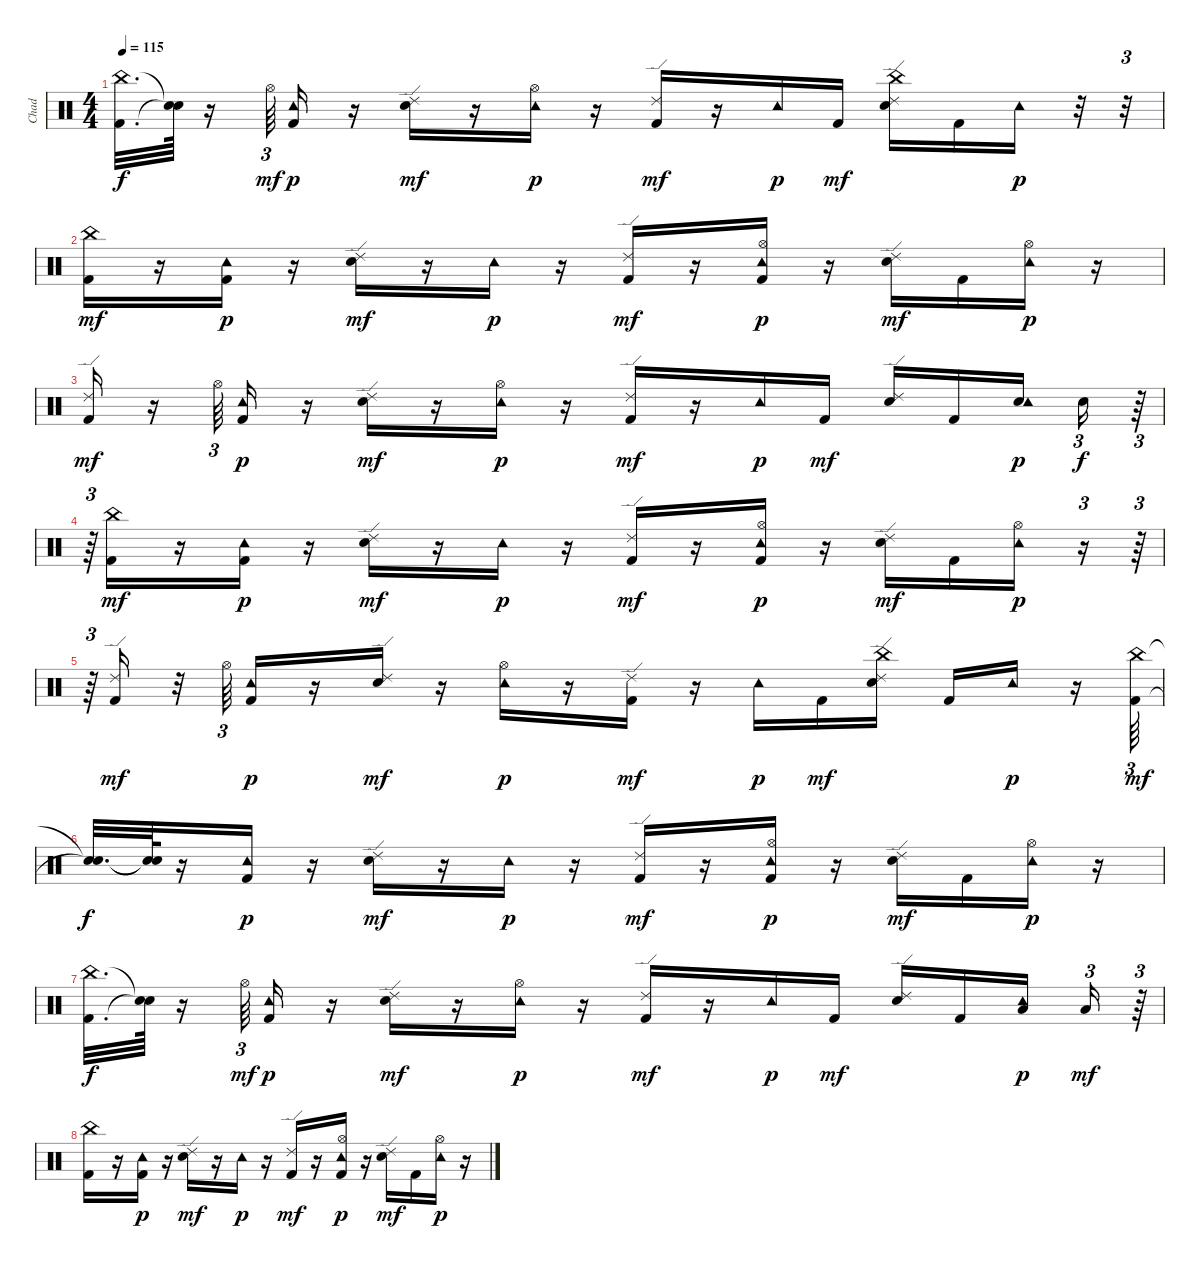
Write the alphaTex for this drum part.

\track ("Chad" "Chad") {instrument percussion}
\staff {score}
\articulation defaults
\ts (4 4)
\tempo 115
\clef neutral
\ks c
("Kick (hit) 2" "China (hit)").32{d dy f} ("Snare (hit)"{t} "Snare (hit)"{t}).64 r.16 "Hi-Hat (open)".64{tu (3 2) dy mf} ("Kick (hit) 2" "Tambourine (hit)").16{dy p} r.16 ("Snare (hit) 2" "Ride (edge) 2").16{dy mf} r.16 ("Hi-Hat (open)" "Tambourine (hit)").16{dy p} r.16 ("Kick (hit) 2" "Ride (edge) 2").16{dy mf} r.16 "Tambourine (hit)".16{dy p} "Kick (hit) 2".16{dy mf} ("Snare (hit) 2" "China (hit)" "Ride (edge) 2").16 "Kick (hit) 2".16 "Tambourine (hit)".16{dy p} r.32 r.32{tu (3 2)} |
("Kick (hit) 2" "China (hit)").16{dy mf} r.16 ("Kick (hit) 2" "Tambourine (hit)").16{dy p} r.16 ("Snare (hit) 2" "Ride (edge) 2").16{dy mf} r.16 "Tambourine (hit)".16{dy p} r.16 ("Kick (hit) 2" "Ride (edge) 2").16{dy mf} r.16 ("Kick (hit) 2" "Hi-Hat (open)" "Tambourine (hit)").16{dy p} r.16 ("Snare (hit) 2" "Ride (edge) 2").16{dy mf} "Kick (hit) 2".16 ("Hi-Hat (open)" "Tambourine (hit)").16{dy p} r.16 |
("Kick (hit) 2" "Ride (edge) 2").16{dy mf} r.16 "Hi-Hat (open)".64{tu (3 2)} ("Kick (hit) 2" "Tambourine (hit)").16{dy p} r.16 ("Snare (hit) 2" "Ride (edge) 2").16{dy mf} r.16 ("Hi-Hat (open)" "Tambourine (hit)").16{dy p} r.16 ("Kick (hit) 2" "Ride (edge) 2").16{dy mf} r.16 "Tambourine (hit)".16{dy p} "Kick (hit) 2".16{dy mf} ("Snare (hit) 2" "Ride (edge) 2").16 "Kick (hit) 2".16 ("Snare (hit) 2" "Tambourine (hit)").16{dy p beam splitsecondary} "Snare (hit) 2".16{tu (3 2) dy f} r.64{tu (3 2)} |
r.64{tu (3 2)} ("Kick (hit) 2" "China (hit)").16{dy mf} r.16 ("Kick (hit) 2" "Tambourine (hit)").16{dy p} r.16 ("Snare (hit) 2" "Ride (edge) 2").16{dy mf} r.16 "Tambourine (hit)".16{dy p} r.16 ("Kick (hit) 2" "Ride (edge) 2").16{dy mf} r.16 ("Kick (hit) 2" "Hi-Hat (open)" "Tambourine (hit)").16{dy p} r.16 ("Snare (hit) 2" "Ride (edge) 2").16{dy mf} "Kick (hit) 2".16 ("Hi-Hat (open)" "Tambourine (hit)").16{dy p} r.16{tu (3 2)} r.64{tu (3 2)} |
r.64{tu (3 2)} ("Kick (hit) 2" "Ride (edge) 2").16{dy mf} r.32 "Hi-Hat (open)".64{tu (3 2)} ("Kick (hit) 2" "Tambourine (hit)").16{dy p} r.16 ("Snare (hit) 2" "Ride (edge) 2").16{dy mf} r.16 ("Hi-Hat (open)" "Tambourine (hit)").16{dy p} r.16 ("Kick (hit) 2" "Ride (edge) 2").16{dy mf} r.16 "Tambourine (hit)".16{dy p} "Kick (hit) 2".16{dy mf} ("Snare (hit) 2" "China (hit)" "Ride (edge) 2").16 "Kick (hit) 2".16 "Tambourine (hit)".16{dy p} r.16 ("Kick (hit) 2" "China (hit)").64{tu (3 2) dy mf} |
("Snare (hit)"{t} "Snare (hit)"{t}).32{d dy f} ("Snare (hit)"{t} "Snare (hit)"{t}).64 r.16 ("Kick (hit) 2" "Tambourine (hit)").16{dy p} r.16 ("Snare (hit) 2" "Ride (edge) 2").16{dy mf} r.16 "Tambourine (hit)".16{dy p} r.16 ("Kick (hit) 2" "Ride (edge) 2").16{dy mf} r.16 ("Kick (hit) 2" "Hi-Hat (open)" "Tambourine (hit)").16{dy p} r.16 ("Snare (hit) 2" "Ride (edge) 2").16{dy mf} "Kick (hit) 2".16 ("Hi-Hat (open)" "Tambourine (hit)").16{dy p} r.16 |
("Kick (hit) 2" "China (hit)").32{d dy f} ("Snare (hit)"{t} "Snare (hit)"{t}).64 r.16 "Hi-Hat (open)".64{tu (3 2) dy mf} ("Kick (hit) 2" "Tambourine (hit)").16{dy p} r.16 ("Snare (hit) 2" "Ride (edge) 2").16{dy mf} r.16 ("Hi-Hat (open)" "Tambourine (hit)").16{dy p} r.16 ("Kick (hit) 2" "Ride (edge) 2").16{dy mf} r.16 "Tambourine (hit)".16{dy p} "Kick (hit) 2".16{dy mf} ("Snare (hit) 2" "Ride (edge) 2").16 "Kick (hit) 2".16 ("Low Floor Tom (hit)" "Tambourine (hit)").16{dy p beam splitsecondary} "Low Floor Tom (hit)".16{tu (3 2) dy mf} r.64{tu (3 2)} |
("Kick (hit) 2" "China (hit)").16 r.16 ("Kick (hit) 2" "Tambourine (hit)").16{dy p} r.16 ("Snare (hit) 2" "Ride (edge) 2").16{dy mf} r.16 "Tambourine (hit)".16{dy p} r.16 ("Kick (hit) 2" "Ride (edge) 2").16{dy mf} r.16 ("Kick (hit) 2" "Hi-Hat (open)" "Tambourine (hit)").16{dy p} r.16 ("Snare (hit) 2" "Ride (edge) 2").16{dy mf} "Kick (hit) 2".16 ("Hi-Hat (open)" "Tambourine (hit)").16{dy p} r.16
